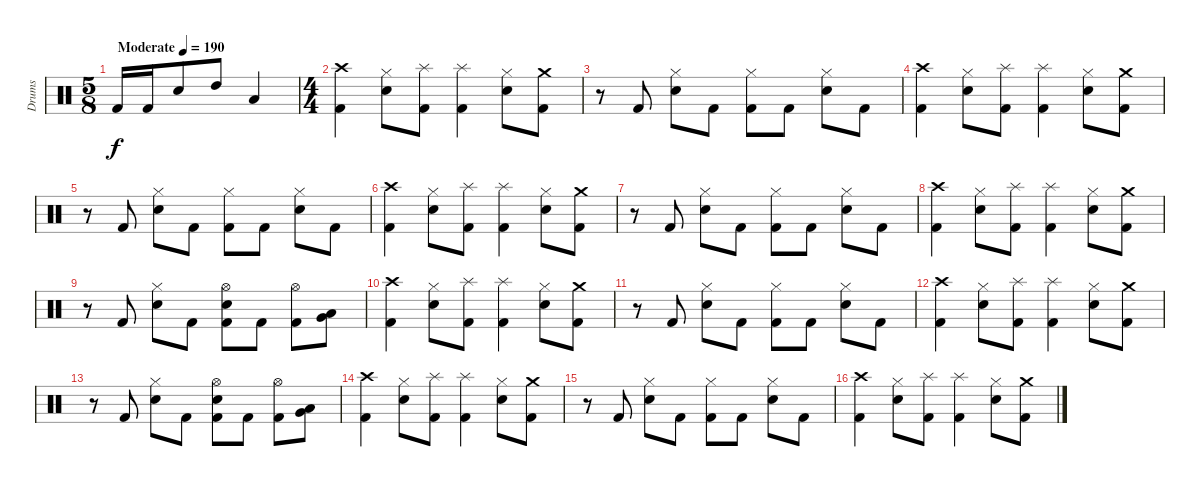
\track ("Drums" "Drums") {instrument percussion}
\staff {score}
\articulation defaults
\ts (5 8)
\tempo (190 "Moderate")
\clef neutral
\ks c "Kick (hit) 2".16{dy f} "Kick (hit) 2".16 "Electric Snare (hit)".8 "High Tom (hit)".8 "Low Tom (hit)".4
|
\ts (4 4)
("Crash high (hit)" "Kick (hit) 2").4 ("Hi-Hat (closed)" "Electric Snare (hit)").8 ("Splash (hit)" "Kick (hit) 2").8 ("Splash (hit)" "Kick (hit) 2").4 ("Hi-Hat (closed)" "Electric Snare (hit)").8 ("Crash medium (hit)" "Kick (hit) 2").8 |
r.8 "Kick (hit) 2".8 ("Hi-Hat (closed)" "Electric Snare (hit)").8 "Kick (hit) 2".8 ("Hi-Hat (closed)" "Kick (hit) 2").8 "Kick (hit) 2".8 ("Hi-Hat (closed)" "Electric Snare (hit)").8 "Kick (hit) 2".8 |
("Crash high (hit)" "Kick (hit) 2").4 ("Hi-Hat (closed)" "Electric Snare (hit)").8 ("Splash (hit)" "Kick (hit) 2").8 ("Splash (hit)" "Kick (hit) 2").4 ("Hi-Hat (closed)" "Electric Snare (hit)").8 ("Crash medium (hit)" "Kick (hit) 2").8 |
r.8 "Kick (hit) 2".8 ("Hi-Hat (closed)" "Electric Snare (hit)").8 "Kick (hit) 2".8 ("Hi-Hat (closed)" "Kick (hit) 2").8 "Kick (hit) 2".8 ("Hi-Hat (closed)" "Electric Snare (hit)").8 "Kick (hit) 2".8 |
("Crash high (hit)" "Kick (hit) 2").4 ("Hi-Hat (closed)" "Electric Snare (hit)").8 ("Splash (hit)" "Kick (hit) 2").8 ("Splash (hit)" "Kick (hit) 2").4 ("Hi-Hat (closed)" "Electric Snare (hit)").8 ("Crash medium (hit)" "Kick (hit) 2").8 |
r.8 "Kick (hit) 2".8 ("Hi-Hat (closed)" "Electric Snare (hit)").8 "Kick (hit) 2".8 ("Hi-Hat (closed)" "Kick (hit) 2").8 "Kick (hit) 2".8 ("Hi-Hat (closed)" "Electric Snare (hit)").8 "Kick (hit) 2".8 |
("Crash high (hit)" "Kick (hit) 2").4 ("Hi-Hat (closed)" "Electric Snare (hit)").8 ("Splash (hit)" "Kick (hit) 2").8 ("Splash (hit)" "Kick (hit) 2").4 ("Hi-Hat (closed)" "Electric Snare (hit)").8 ("Crash medium (hit)" "Kick (hit) 2").8 |
r.8 "Kick (hit) 2".8 ("Hi-Hat (closed)" "Electric Snare (hit)").8 "Kick (hit) 2".8 ("Hi-Hat (open)" "Electric Snare (hit)" "Kick (hit) 2").8 "Kick (hit) 2".8 ("Hi-Hat (open)" "Kick (hit) 2").8 ("Low Tom (hit)" "Very Low Tom (hit)").8 |
("Crash high (hit)" "Kick (hit) 2").4 ("Hi-Hat (closed)" "Electric Snare (hit)").8 ("Splash (hit)" "Kick (hit) 2").8 ("Splash (hit)" "Kick (hit) 2").4 ("Hi-Hat (closed)" "Electric Snare (hit)").8 ("Crash medium (hit)" "Kick (hit) 2").8 |
r.8 "Kick (hit) 2".8 ("Hi-Hat (closed)" "Electric Snare (hit)").8 "Kick (hit) 2".8 ("Hi-Hat (closed)" "Kick (hit) 2").8 "Kick (hit) 2".8 ("Hi-Hat (closed)" "Electric Snare (hit)").8 "Kick (hit) 2".8 |
("Crash high (hit)" "Kick (hit) 2").4 ("Hi-Hat (closed)" "Electric Snare (hit)").8 ("Splash (hit)" "Kick (hit) 2").8 ("Splash (hit)" "Kick (hit) 2").4 ("Hi-Hat (closed)" "Electric Snare (hit)").8 ("Crash medium (hit)" "Kick (hit) 2").8 |
r.8 "Kick (hit) 2".8 ("Hi-Hat (closed)" "Electric Snare (hit)").8 "Kick (hit) 2".8 ("Hi-Hat (open)" "Electric Snare (hit)" "Kick (hit) 2").8 "Kick (hit) 2".8 ("Hi-Hat (open)" "Kick (hit) 2").8 ("Low Tom (hit)" "Very Low Tom (hit)").8 |
("Crash high (hit)" "Kick (hit) 2").4 ("Hi-Hat (closed)" "Electric Snare (hit)").8 ("Splash (hit)" "Kick (hit) 2").8 ("Splash (hit)" "Kick (hit) 2").4 ("Hi-Hat (closed)" "Electric Snare (hit)").8 ("Crash medium (hit)" "Kick (hit) 2").8 |
r.8 "Kick (hit) 2".8 ("Hi-Hat (closed)" "Electric Snare (hit)").8 "Kick (hit) 2".8 ("Hi-Hat (closed)" "Kick (hit) 2").8 "Kick (hit) 2".8 ("Hi-Hat (closed)" "Electric Snare (hit)").8 "Kick (hit) 2".8 |
("Crash high (hit)" "Kick (hit) 2").4 ("Hi-Hat (closed)" "Electric Snare (hit)").8 ("Splash (hit)" "Kick (hit) 2").8 ("Splash (hit)" "Kick (hit) 2").4 ("Hi-Hat (closed)" "Electric Snare (hit)").8 ("Crash medium (hit)" "Kick (hit) 2").8
